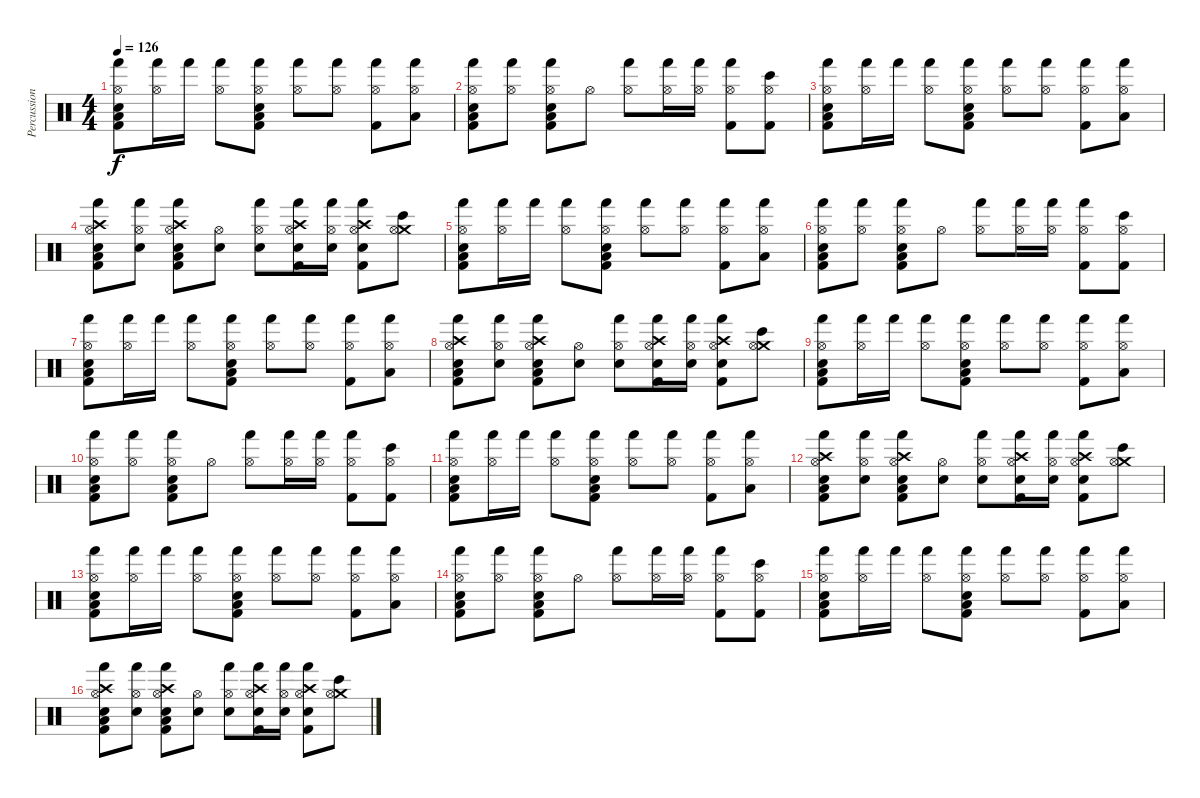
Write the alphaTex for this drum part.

\track ("Percussion" "Percussion") {instrument percussion}
\staff {score}
\articulation defaults
\ts (4 4)
\tempo 126
\clef neutral
\ks c
("Hand (hit)" "Low Tom (hit)" "Kick (hit) 2" "Snare (hit) 2" "Hi-Hat (open)").8{dy f} ("Hand (hit)" "Hi-Hat (open)").16 "Hand (hit)".16 ("Hand (hit)" "Hi-Hat (open)").8 ("Hand (hit)" "Low Tom (hit)" "Kick (hit) 2" "Snare (hit) 2" "Hi-Hat (open)").8 ("Hand (hit)" "Hi-Hat (open)").8 ("Hand (hit)" "Hi-Hat (open)").8 ("Hand (hit)" "Kick (hit) 2" "Hi-Hat (open)").8 ("Hand (hit)" "Low Tom (hit)" "Hi-Hat (open)").8 |
("Hand (hit)" "Low Tom (hit)" "Kick (hit) 2" "Snare (hit) 2" "Hi-Hat (open)").8 ("Hand (hit)" "Hi-Hat (open)").8 ("Hand (hit)" "Low Tom (hit)" "Kick (hit) 2" "Snare (hit) 2" "Hi-Hat (open)").8 "Hi-Hat (open)".8 ("Hand (hit)" "Hi-Hat (open)").8 ("Hand (hit)" "Hi-Hat (open)").16 ("Hand (hit)" "Hi-Hat (open)").16 ("Hand (hit)" "Kick (hit) 2" "Hi-Hat (open)").8 ("Bongo High (hit)" "Kick (hit) 2" "Hi-Hat (open)").8 |
("Hand (hit)" "Low Tom (hit)" "Kick (hit) 2" "Snare (hit) 2" "Hi-Hat (open)").8 ("Hand (hit)" "Hi-Hat (open)").16 "Hand (hit)".16 ("Hand (hit)" "Hi-Hat (open)").8 ("Hand (hit)" "Low Tom (hit)" "Kick (hit) 2" "Snare (hit) 2" "Hi-Hat (open)").8 ("Hand (hit)" "Hi-Hat (open)").8 ("Hand (hit)" "Hi-Hat (open)").8 ("Hand (hit)" "Kick (hit) 2" "Hi-Hat (open)").8 ("Hand (hit)" "Low Tom (hit)" "Hi-Hat (open)").8 |
("Hand (hit)" "Crash high (hit)" "Low Tom (hit)" "Kick (hit) 2" "Snare (hit) 2" "Hi-Hat (open)").8 ("Hand (hit)" "Snare (hit) 2" "Hi-Hat (open)").8 ("Hand (hit)" "Crash high (hit)" "Low Tom (hit)" "Kick (hit) 2" "Snare (hit) 2" "Hi-Hat (open)").8 ("Snare (hit) 2" "Hi-Hat (open)").8 ("Hand (hit)" "Snare (hit) 2" "Hi-Hat (open)").8 ("Hand (hit)" "Crash high (hit)" "Snare (hit) 2" "Kick (hit) 2" "Hi-Hat (open)").16 ("Hand (hit)" "Snare (hit) 2" "Hi-Hat (open)").16 ("Hand (hit)" "Crash high (hit)" "Snare (hit) 2" "Kick (hit) 2" "Hi-Hat (open)").8 ("Bongo High (hit)" "Crash medium (hit)" "Hi-Hat (open)").8 |
("Hand (hit)" "Low Tom (hit)" "Kick (hit) 2" "Snare (hit) 2" "Hi-Hat (open)").8 ("Hand (hit)" "Hi-Hat (open)").16 "Hand (hit)".16 ("Hand (hit)" "Hi-Hat (open)").8 ("Hand (hit)" "Low Tom (hit)" "Kick (hit) 2" "Snare (hit) 2" "Hi-Hat (open)").8 ("Hand (hit)" "Hi-Hat (open)").8 ("Hand (hit)" "Hi-Hat (open)").8 ("Hand (hit)" "Kick (hit) 2" "Hi-Hat (open)").8 ("Hand (hit)" "Low Tom (hit)" "Hi-Hat (open)").8 |
("Hand (hit)" "Low Tom (hit)" "Kick (hit) 2" "Snare (hit) 2" "Hi-Hat (open)").8 ("Hand (hit)" "Hi-Hat (open)").8 ("Hand (hit)" "Low Tom (hit)" "Kick (hit) 2" "Snare (hit) 2" "Hi-Hat (open)").8 "Hi-Hat (open)".8 ("Hand (hit)" "Hi-Hat (open)").8 ("Hand (hit)" "Hi-Hat (open)").16 ("Hand (hit)" "Hi-Hat (open)").16 ("Hand (hit)" "Kick (hit) 2" "Hi-Hat (open)").8 ("Bongo High (hit)" "Kick (hit) 2" "Hi-Hat (open)").8 |
("Hand (hit)" "Low Tom (hit)" "Kick (hit) 2" "Snare (hit) 2" "Hi-Hat (open)").8 ("Hand (hit)" "Hi-Hat (open)").16 "Hand (hit)".16 ("Hand (hit)" "Hi-Hat (open)").8 ("Hand (hit)" "Low Tom (hit)" "Kick (hit) 2" "Snare (hit) 2" "Hi-Hat (open)").8 ("Hand (hit)" "Hi-Hat (open)").8 ("Hand (hit)" "Hi-Hat (open)").8 ("Hand (hit)" "Kick (hit) 2" "Hi-Hat (open)").8 ("Hand (hit)" "Low Tom (hit)" "Hi-Hat (open)").8 |
("Hand (hit)" "Crash high (hit)" "Low Tom (hit)" "Kick (hit) 2" "Snare (hit) 2" "Hi-Hat (open)").8 ("Hand (hit)" "Snare (hit) 2" "Hi-Hat (open)").8 ("Hand (hit)" "Crash high (hit)" "Low Tom (hit)" "Kick (hit) 2" "Snare (hit) 2" "Hi-Hat (open)").8 ("Snare (hit) 2" "Hi-Hat (open)").8 ("Hand (hit)" "Snare (hit) 2" "Hi-Hat (open)").8 ("Hand (hit)" "Crash high (hit)" "Snare (hit) 2" "Kick (hit) 2" "Hi-Hat (open)").16 ("Hand (hit)" "Snare (hit) 2" "Hi-Hat (open)").16 ("Hand (hit)" "Crash high (hit)" "Snare (hit) 2" "Kick (hit) 2" "Hi-Hat (open)").8 ("Bongo High (hit)" "Crash medium (hit)" "Hi-Hat (open)").8 |
("Hand (hit)" "Low Tom (hit)" "Kick (hit) 2" "Snare (hit) 2" "Hi-Hat (open)").8 ("Hand (hit)" "Hi-Hat (open)").16 "Hand (hit)".16 ("Hand (hit)" "Hi-Hat (open)").8 ("Hand (hit)" "Low Tom (hit)" "Kick (hit) 2" "Snare (hit) 2" "Hi-Hat (open)").8 ("Hand (hit)" "Hi-Hat (open)").8 ("Hand (hit)" "Hi-Hat (open)").8 ("Hand (hit)" "Kick (hit) 2" "Hi-Hat (open)").8 ("Hand (hit)" "Low Tom (hit)" "Hi-Hat (open)").8 |
("Hand (hit)" "Low Tom (hit)" "Kick (hit) 2" "Snare (hit) 2" "Hi-Hat (open)").8 ("Hand (hit)" "Hi-Hat (open)").8 ("Hand (hit)" "Low Tom (hit)" "Kick (hit) 2" "Snare (hit) 2" "Hi-Hat (open)").8 "Hi-Hat (open)".8 ("Hand (hit)" "Hi-Hat (open)").8 ("Hand (hit)" "Hi-Hat (open)").16 ("Hand (hit)" "Hi-Hat (open)").16 ("Hand (hit)" "Kick (hit) 2" "Hi-Hat (open)").8 ("Bongo High (hit)" "Kick (hit) 2" "Hi-Hat (open)").8 |
("Hand (hit)" "Low Tom (hit)" "Kick (hit) 2" "Snare (hit) 2" "Hi-Hat (open)").8 ("Hand (hit)" "Hi-Hat (open)").16 "Hand (hit)".16 ("Hand (hit)" "Hi-Hat (open)").8 ("Hand (hit)" "Low Tom (hit)" "Kick (hit) 2" "Snare (hit) 2" "Hi-Hat (open)").8 ("Hand (hit)" "Hi-Hat (open)").8 ("Hand (hit)" "Hi-Hat (open)").8 ("Hand (hit)" "Kick (hit) 2" "Hi-Hat (open)").8 ("Hand (hit)" "Low Tom (hit)" "Hi-Hat (open)").8 |
("Hand (hit)" "Crash high (hit)" "Low Tom (hit)" "Kick (hit) 2" "Snare (hit) 2" "Hi-Hat (open)").8 ("Hand (hit)" "Snare (hit) 2" "Hi-Hat (open)").8 ("Hand (hit)" "Crash high (hit)" "Low Tom (hit)" "Kick (hit) 2" "Snare (hit) 2" "Hi-Hat (open)").8 ("Snare (hit) 2" "Hi-Hat (open)").8 ("Hand (hit)" "Snare (hit) 2" "Hi-Hat (open)").8 ("Hand (hit)" "Crash high (hit)" "Snare (hit) 2" "Kick (hit) 2" "Hi-Hat (open)").16 ("Hand (hit)" "Snare (hit) 2" "Hi-Hat (open)").16 ("Hand (hit)" "Crash high (hit)" "Snare (hit) 2" "Kick (hit) 2" "Hi-Hat (open)").8 ("Bongo High (hit)" "Crash medium (hit)" "Hi-Hat (open)").8 |
("Hand (hit)" "Low Tom (hit)" "Kick (hit) 2" "Snare (hit) 2" "Hi-Hat (open)").8 ("Hand (hit)" "Hi-Hat (open)").16 "Hand (hit)".16 ("Hand (hit)" "Hi-Hat (open)").8 ("Hand (hit)" "Low Tom (hit)" "Kick (hit) 2" "Snare (hit) 2" "Hi-Hat (open)").8 ("Hand (hit)" "Hi-Hat (open)").8 ("Hand (hit)" "Hi-Hat (open)").8 ("Hand (hit)" "Kick (hit) 2" "Hi-Hat (open)").8 ("Hand (hit)" "Low Tom (hit)" "Hi-Hat (open)").8 |
("Hand (hit)" "Low Tom (hit)" "Kick (hit) 2" "Snare (hit) 2" "Hi-Hat (open)").8 ("Hand (hit)" "Hi-Hat (open)").8 ("Hand (hit)" "Low Tom (hit)" "Kick (hit) 2" "Snare (hit) 2" "Hi-Hat (open)").8 "Hi-Hat (open)".8 ("Hand (hit)" "Hi-Hat (open)").8 ("Hand (hit)" "Hi-Hat (open)").16 ("Hand (hit)" "Hi-Hat (open)").16 ("Hand (hit)" "Kick (hit) 2" "Hi-Hat (open)").8 ("Bongo High (hit)" "Kick (hit) 2" "Hi-Hat (open)").8 |
("Hand (hit)" "Low Tom (hit)" "Kick (hit) 2" "Snare (hit) 2" "Hi-Hat (open)").8 ("Hand (hit)" "Hi-Hat (open)").16 "Hand (hit)".16 ("Hand (hit)" "Hi-Hat (open)").8 ("Hand (hit)" "Low Tom (hit)" "Kick (hit) 2" "Snare (hit) 2" "Hi-Hat (open)").8 ("Hand (hit)" "Hi-Hat (open)").8 ("Hand (hit)" "Hi-Hat (open)").8 ("Hand (hit)" "Kick (hit) 2" "Hi-Hat (open)").8 ("Hand (hit)" "Low Tom (hit)" "Hi-Hat (open)").8 |
("Hand (hit)" "Crash high (hit)" "Low Tom (hit)" "Kick (hit) 2" "Snare (hit) 2" "Hi-Hat (open)").8 ("Hand (hit)" "Snare (hit) 2" "Hi-Hat (open)").8 ("Hand (hit)" "Crash high (hit)" "Low Tom (hit)" "Kick (hit) 2" "Snare (hit) 2" "Hi-Hat (open)").8 ("Snare (hit) 2" "Hi-Hat (open)").8 ("Hand (hit)" "Snare (hit) 2" "Hi-Hat (open)").8 ("Hand (hit)" "Crash high (hit)" "Snare (hit) 2" "Kick (hit) 2" "Hi-Hat (open)").16 ("Hand (hit)" "Snare (hit) 2" "Hi-Hat (open)").16 ("Hand (hit)" "Crash high (hit)" "Snare (hit) 2" "Kick (hit) 2" "Hi-Hat (open)").8 ("Bongo High (hit)" "Crash medium (hit)" "Hi-Hat (open)").8
